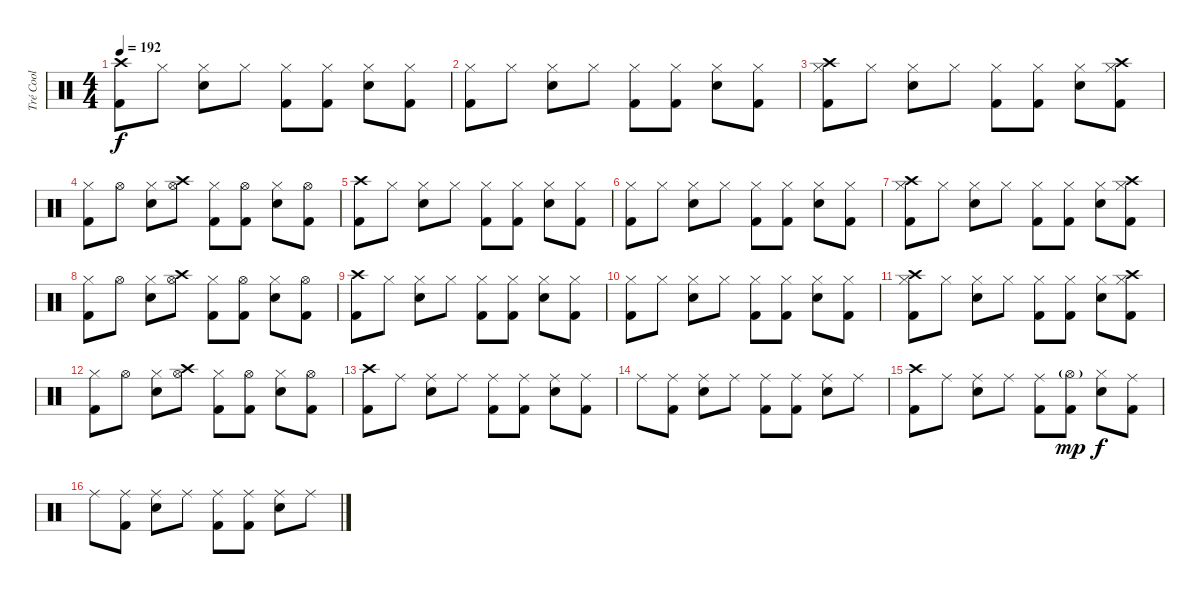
\track ("Tré Cool" "Tré Cool") {solo instrument percussion}
\staff {score}
\articulation defaults
\ts (4 4)
\tempo 192
\clef neutral
\ks c
("Kick (hit) 2" "Crash high (hit)").8{dy f} "Hi-Hat (closed)".8 ("Hi-Hat (closed)" "Electric Snare (hit)").8 "Hi-Hat (closed)".8 ("Hi-Hat (closed)" "Kick (hit) 2").8 ("Hi-Hat (closed)" "Kick (hit) 2").8 ("Hi-Hat (closed)" "Electric Snare (hit)").8 ("Hi-Hat (closed)" "Kick (hit) 2").8 |
("Hi-Hat (closed)" "Kick (hit) 2").8 "Hi-Hat (closed)".8 ("Hi-Hat (closed)" "Electric Snare (hit)").8 "Hi-Hat (closed)".8 ("Hi-Hat (closed)" "Kick (hit) 2").8 ("Hi-Hat (closed)" "Kick (hit) 2").8 ("Hi-Hat (closed)" "Electric Snare (hit)").8 ("Hi-Hat (closed)" "Kick (hit) 2").8 |
("Hi-Hat (closed)" "Kick (hit) 2" "Crash high (hit)").8 "Hi-Hat (closed)".8 ("Hi-Hat (closed)" "Electric Snare (hit)").8 "Hi-Hat (closed)".8 ("Hi-Hat (closed)" "Kick (hit) 2").8 ("Hi-Hat (closed)" "Kick (hit) 2").8 ("Hi-Hat (closed)" "Electric Snare (hit)").8 ("Hi-Hat (closed)" "Kick (hit) 2" "Crash high (hit)").8 |
("Hi-Hat (closed)" "Kick (hit) 2").8 "Hi-Hat (open)".8 ("Hi-Hat (closed)" "Electric Snare (hit)").8 ("Hi-Hat (open)" "Crash high (hit)").8 ("Hi-Hat (closed)" "Kick (hit) 2").8 ("Hi-Hat (open)" "Kick (hit) 2").8 ("Hi-Hat (closed)" "Electric Snare (hit)").8 ("Hi-Hat (open)" "Kick (hit) 2").8 |
("Kick (hit) 2" "Crash high (hit)").8 "Hi-Hat (closed)".8 ("Hi-Hat (closed)" "Electric Snare (hit)").8 "Hi-Hat (closed)".8 ("Hi-Hat (closed)" "Kick (hit) 2").8 ("Hi-Hat (closed)" "Kick (hit) 2").8 ("Hi-Hat (closed)" "Electric Snare (hit)").8 ("Hi-Hat (closed)" "Kick (hit) 2").8 |
("Hi-Hat (closed)" "Kick (hit) 2").8 "Hi-Hat (closed)".8 ("Hi-Hat (closed)" "Electric Snare (hit)").8 "Hi-Hat (closed)".8 ("Hi-Hat (closed)" "Kick (hit) 2").8 ("Hi-Hat (closed)" "Kick (hit) 2").8 ("Hi-Hat (closed)" "Electric Snare (hit)").8 ("Hi-Hat (closed)" "Kick (hit) 2").8 |
("Hi-Hat (closed)" "Kick (hit) 2" "Crash high (hit)").8 "Hi-Hat (closed)".8 ("Hi-Hat (closed)" "Electric Snare (hit)").8 "Hi-Hat (closed)".8 ("Hi-Hat (closed)" "Kick (hit) 2").8 ("Hi-Hat (closed)" "Kick (hit) 2").8 ("Hi-Hat (closed)" "Electric Snare (hit)").8 ("Hi-Hat (closed)" "Kick (hit) 2" "Crash high (hit)").8 |
("Hi-Hat (closed)" "Kick (hit) 2").8 "Hi-Hat (open)".8 ("Hi-Hat (closed)" "Electric Snare (hit)").8 ("Hi-Hat (open)" "Crash high (hit)").8 ("Hi-Hat (closed)" "Kick (hit) 2").8 ("Hi-Hat (open)" "Kick (hit) 2").8 ("Hi-Hat (closed)" "Electric Snare (hit)").8 ("Hi-Hat (open)" "Kick (hit) 2").8 |
("Kick (hit) 2" "Crash high (hit)").8 "Hi-Hat (closed)".8 ("Hi-Hat (closed)" "Electric Snare (hit)").8 "Hi-Hat (closed)".8 ("Hi-Hat (closed)" "Kick (hit) 2").8 ("Hi-Hat (closed)" "Kick (hit) 2").8 ("Hi-Hat (closed)" "Electric Snare (hit)").8 ("Hi-Hat (closed)" "Kick (hit) 2").8 |
("Hi-Hat (closed)" "Kick (hit) 2").8 "Hi-Hat (closed)".8 ("Hi-Hat (closed)" "Electric Snare (hit)").8 "Hi-Hat (closed)".8 ("Hi-Hat (closed)" "Kick (hit) 2").8 ("Hi-Hat (closed)" "Kick (hit) 2").8 ("Hi-Hat (closed)" "Electric Snare (hit)").8 ("Hi-Hat (closed)" "Kick (hit) 2").8 |
("Hi-Hat (closed)" "Kick (hit) 2" "Crash high (hit)").8 "Hi-Hat (closed)".8 ("Hi-Hat (closed)" "Electric Snare (hit)").8 "Hi-Hat (closed)".8 ("Hi-Hat (closed)" "Kick (hit) 2").8 ("Hi-Hat (closed)" "Kick (hit) 2").8 ("Hi-Hat (closed)" "Electric Snare (hit)").8 ("Hi-Hat (closed)" "Kick (hit) 2" "Crash high (hit)").8 |
("Hi-Hat (closed)" "Kick (hit) 2").8 "Hi-Hat (open)".8 ("Hi-Hat (closed)" "Electric Snare (hit)").8 ("Hi-Hat (open)" "Crash high (hit)").8 ("Hi-Hat (closed)" "Kick (hit) 2").8 ("Hi-Hat (open)" "Kick (hit) 2").8 ("Hi-Hat (closed)" "Electric Snare (hit)").8 ("Hi-Hat (open)" "Kick (hit) 2").8 |
("Kick (hit) 2" "Crash high (hit)").8 "Ride (middle)".8 ("Ride (middle)" "Electric Snare (hit)").8 "Ride (middle)".8 ("Ride (middle)" "Kick (hit) 2").8 ("Ride (middle)" "Kick (hit) 2").8 ("Ride (middle)" "Electric Snare (hit)").8 ("Ride (middle)" "Kick (hit) 2").8 |
"Ride (middle)".8 ("Ride (middle)" "Kick (hit) 2").8 ("Ride (middle)" "Electric Snare (hit)").8 "Ride (middle)".8 ("Ride (middle)" "Kick (hit) 2").8 ("Ride (middle)" "Kick (hit) 2").8 ("Ride (middle)" "Electric Snare (hit)").8 "Ride (middle)".8 |
("Kick (hit) 2" "Crash high (hit)").8 "Ride (middle)".8 ("Ride (middle)" "Electric Snare (hit)").8 "Ride (middle)".8 ("Ride (middle)" "Kick (hit) 2").8 ("Hi-Hat (open)"{g} "Kick (hit) 2").8{dy mp} ("Hi-Hat (closed)" "Electric Snare (hit)").8{dy f} ("Ride (middle)" "Kick (hit) 2").8 |
"Ride (middle)".8 ("Ride (middle)" "Kick (hit) 2").8 ("Ride (middle)" "Electric Snare (hit)").8 "Ride (middle)".8 ("Ride (middle)" "Kick (hit) 2").8 ("Ride (middle)" "Kick (hit) 2").8 ("Ride (middle)" "Electric Snare (hit)").8 "Ride (middle)".8
